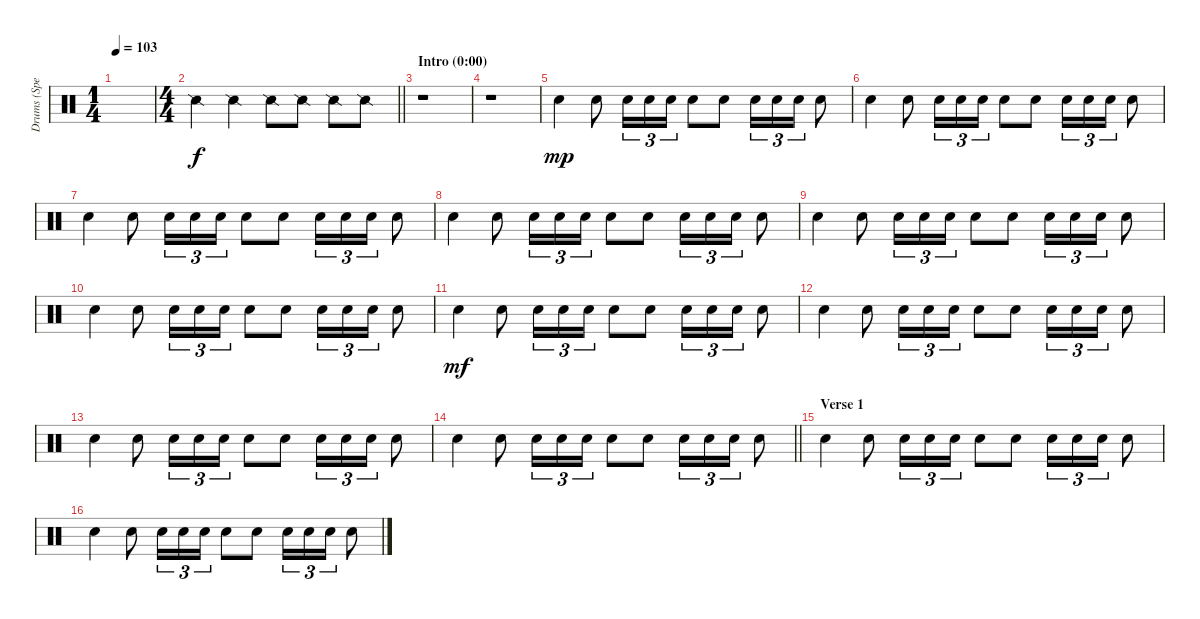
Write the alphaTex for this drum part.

\track ("Drums (Spencer Dryden)" "Drums (Spe") {instrument percussion}
\staff {score}
\articulation defaults
\ts (1 4)
\tempo 103
\clef neutral
\ks c
|
\ts (4 4)
\barLineRight lightlight "Snare (side stick) 2".4 "Snare (side stick) 2".4 "Snare (side stick) 2".8 "Snare (side stick) 2".8 "Snare (side stick) 2".8 "Snare (side stick) 2".8
|
\section ("" "Intro (0:00)")
r.1 |
r.1 |
"Snare (hit) 2".4{dy mp} "Snare (hit) 2".8 "Snare (hit) 2".16{tu (3 2)} "Snare (hit) 2".16{tu (3 2)} "Snare (hit) 2".16{tu (3 2)} "Snare (hit) 2".8 "Snare (hit) 2".8 "Snare (hit) 2".16{tu (3 2)} "Snare (hit) 2".16{tu (3 2)} "Snare (hit) 2".16{tu (3 2)} "Snare (hit) 2".8 |
"Snare (hit) 2".4 "Snare (hit) 2".8 "Snare (hit) 2".16{tu (3 2)} "Snare (hit) 2".16{tu (3 2)} "Snare (hit) 2".16{tu (3 2)} "Snare (hit) 2".8 "Snare (hit) 2".8 "Snare (hit) 2".16{tu (3 2)} "Snare (hit) 2".16{tu (3 2)} "Snare (hit) 2".16{tu (3 2)} "Snare (hit) 2".8 |
"Snare (hit) 2".4 "Snare (hit) 2".8 "Snare (hit) 2".16{tu (3 2)} "Snare (hit) 2".16{tu (3 2)} "Snare (hit) 2".16{tu (3 2)} "Snare (hit) 2".8 "Snare (hit) 2".8 "Snare (hit) 2".16{tu (3 2)} "Snare (hit) 2".16{tu (3 2)} "Snare (hit) 2".16{tu (3 2)} "Snare (hit) 2".8 |
"Snare (hit) 2".4 "Snare (hit) 2".8 "Snare (hit) 2".16{tu (3 2)} "Snare (hit) 2".16{tu (3 2)} "Snare (hit) 2".16{tu (3 2)} "Snare (hit) 2".8 "Snare (hit) 2".8 "Snare (hit) 2".16{tu (3 2)} "Snare (hit) 2".16{tu (3 2)} "Snare (hit) 2".16{tu (3 2)} "Snare (hit) 2".8 |
"Snare (hit) 2".4 "Snare (hit) 2".8 "Snare (hit) 2".16{tu (3 2)} "Snare (hit) 2".16{tu (3 2)} "Snare (hit) 2".16{tu (3 2)} "Snare (hit) 2".8 "Snare (hit) 2".8 "Snare (hit) 2".16{tu (3 2)} "Snare (hit) 2".16{tu (3 2)} "Snare (hit) 2".16{tu (3 2)} "Snare (hit) 2".8 |
"Snare (hit) 2".4 "Snare (hit) 2".8 "Snare (hit) 2".16{tu (3 2)} "Snare (hit) 2".16{tu (3 2)} "Snare (hit) 2".16{tu (3 2)} "Snare (hit) 2".8 "Snare (hit) 2".8 "Snare (hit) 2".16{tu (3 2)} "Snare (hit) 2".16{tu (3 2)} "Snare (hit) 2".16{tu (3 2)} "Snare (hit) 2".8 |
"Snare (hit) 2".4{dy mf} "Snare (hit) 2".8 "Snare (hit) 2".16{tu (3 2)} "Snare (hit) 2".16{tu (3 2)} "Snare (hit) 2".16{tu (3 2)} "Snare (hit) 2".8 "Snare (hit) 2".8 "Snare (hit) 2".16{tu (3 2)} "Snare (hit) 2".16{tu (3 2)} "Snare (hit) 2".16{tu (3 2)} "Snare (hit) 2".8 |
"Snare (hit) 2".4 "Snare (hit) 2".8 "Snare (hit) 2".16{tu (3 2)} "Snare (hit) 2".16{tu (3 2)} "Snare (hit) 2".16{tu (3 2)} "Snare (hit) 2".8 "Snare (hit) 2".8 "Snare (hit) 2".16{tu (3 2)} "Snare (hit) 2".16{tu (3 2)} "Snare (hit) 2".16{tu (3 2)} "Snare (hit) 2".8 |
"Snare (hit) 2".4 "Snare (hit) 2".8 "Snare (hit) 2".16{tu (3 2)} "Snare (hit) 2".16{tu (3 2)} "Snare (hit) 2".16{tu (3 2)} "Snare (hit) 2".8 "Snare (hit) 2".8 "Snare (hit) 2".16{tu (3 2)} "Snare (hit) 2".16{tu (3 2)} "Snare (hit) 2".16{tu (3 2)} "Snare (hit) 2".8 |
\barLineRight lightlight "Snare (hit) 2".4 "Snare (hit) 2".8 "Snare (hit) 2".16{tu (3 2)} "Snare (hit) 2".16{tu (3 2)} "Snare (hit) 2".16{tu (3 2)} "Snare (hit) 2".8 "Snare (hit) 2".8 "Snare (hit) 2".16{tu (3 2)} "Snare (hit) 2".16{tu (3 2)} "Snare (hit) 2".16{tu (3 2)} "Snare (hit) 2".8
|
\section ("" "Verse 1")
"Snare (hit) 2".4 "Snare (hit) 2".8 "Snare (hit) 2".16{tu (3 2)} "Snare (hit) 2".16{tu (3 2)} "Snare (hit) 2".16{tu (3 2)} "Snare (hit) 2".8 "Snare (hit) 2".8 "Snare (hit) 2".16{tu (3 2)} "Snare (hit) 2".16{tu (3 2)} "Snare (hit) 2".16{tu (3 2)} "Snare (hit) 2".8 |
"Snare (hit) 2".4 "Snare (hit) 2".8 "Snare (hit) 2".16{tu (3 2)} "Snare (hit) 2".16{tu (3 2)} "Snare (hit) 2".16{tu (3 2)} "Snare (hit) 2".8 "Snare (hit) 2".8 "Snare (hit) 2".16{tu (3 2)} "Snare (hit) 2".16{tu (3 2)} "Snare (hit) 2".16{tu (3 2)} "Snare (hit) 2".8
